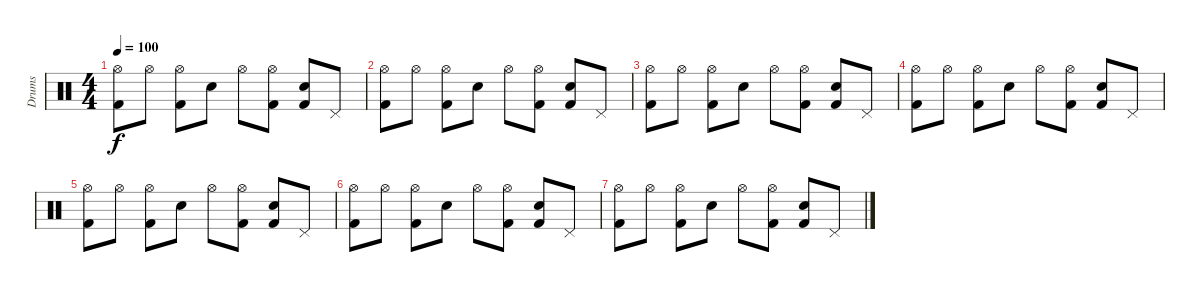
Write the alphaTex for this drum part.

\track ("Drums" "Drums") {instrument percussion}
\staff {score}
\articulation defaults
\ts (4 4)
\tempo 100
\clef neutral
\ks c
("Hi-Hat (open)" "Kick (hit) 2").8{dy f} "Hi-Hat (open)".8 ("Hi-Hat (open)" "Kick (hit) 2").8 "Snare (hit) 2".8 "Hi-Hat (open)".8 ("Hi-Hat (open)" "Kick (hit) 2").8 ("Snare (hit) 2" "Kick (hit) 2").8 "Pedal Hi-Hat (hit)".8 |
("Hi-Hat (open)" "Kick (hit) 2").8 "Hi-Hat (open)".8 ("Hi-Hat (open)" "Kick (hit) 2").8 "Snare (hit) 2".8 "Hi-Hat (open)".8 ("Hi-Hat (open)" "Kick (hit) 2").8 ("Snare (hit) 2" "Kick (hit) 2").8 "Pedal Hi-Hat (hit)".8 |
("Hi-Hat (open)" "Kick (hit) 2").8 "Hi-Hat (open)".8 ("Hi-Hat (open)" "Kick (hit) 2").8 "Snare (hit) 2".8 "Hi-Hat (open)".8 ("Hi-Hat (open)" "Kick (hit) 2").8 ("Snare (hit) 2" "Kick (hit) 2").8 "Pedal Hi-Hat (hit)".8 |
("Hi-Hat (open)" "Kick (hit) 2").8 "Hi-Hat (open)".8 ("Hi-Hat (open)" "Kick (hit) 2").8 "Snare (hit) 2".8 "Hi-Hat (open)".8 ("Hi-Hat (open)" "Kick (hit) 2").8 ("Snare (hit) 2" "Kick (hit) 2").8 "Pedal Hi-Hat (hit)".8 |
("Hi-Hat (open)" "Kick (hit) 2").8 "Hi-Hat (open)".8 ("Hi-Hat (open)" "Kick (hit) 2").8 "Snare (hit) 2".8 "Hi-Hat (open)".8 ("Hi-Hat (open)" "Kick (hit) 2").8 ("Snare (hit) 2" "Kick (hit) 2").8 "Pedal Hi-Hat (hit)".8 |
("Hi-Hat (open)" "Kick (hit) 2").8 "Hi-Hat (open)".8 ("Hi-Hat (open)" "Kick (hit) 2").8 "Snare (hit) 2".8 "Hi-Hat (open)".8 ("Hi-Hat (open)" "Kick (hit) 2").8 ("Snare (hit) 2" "Kick (hit) 2").8 "Pedal Hi-Hat (hit)".8 |
("Hi-Hat (open)" "Kick (hit) 2").8 "Hi-Hat (open)".8 ("Hi-Hat (open)" "Kick (hit) 2").8 "Snare (hit) 2".8 "Hi-Hat (open)".8 ("Hi-Hat (open)" "Kick (hit) 2").8 ("Snare (hit) 2" "Kick (hit) 2").8 "Pedal Hi-Hat (hit)".8
